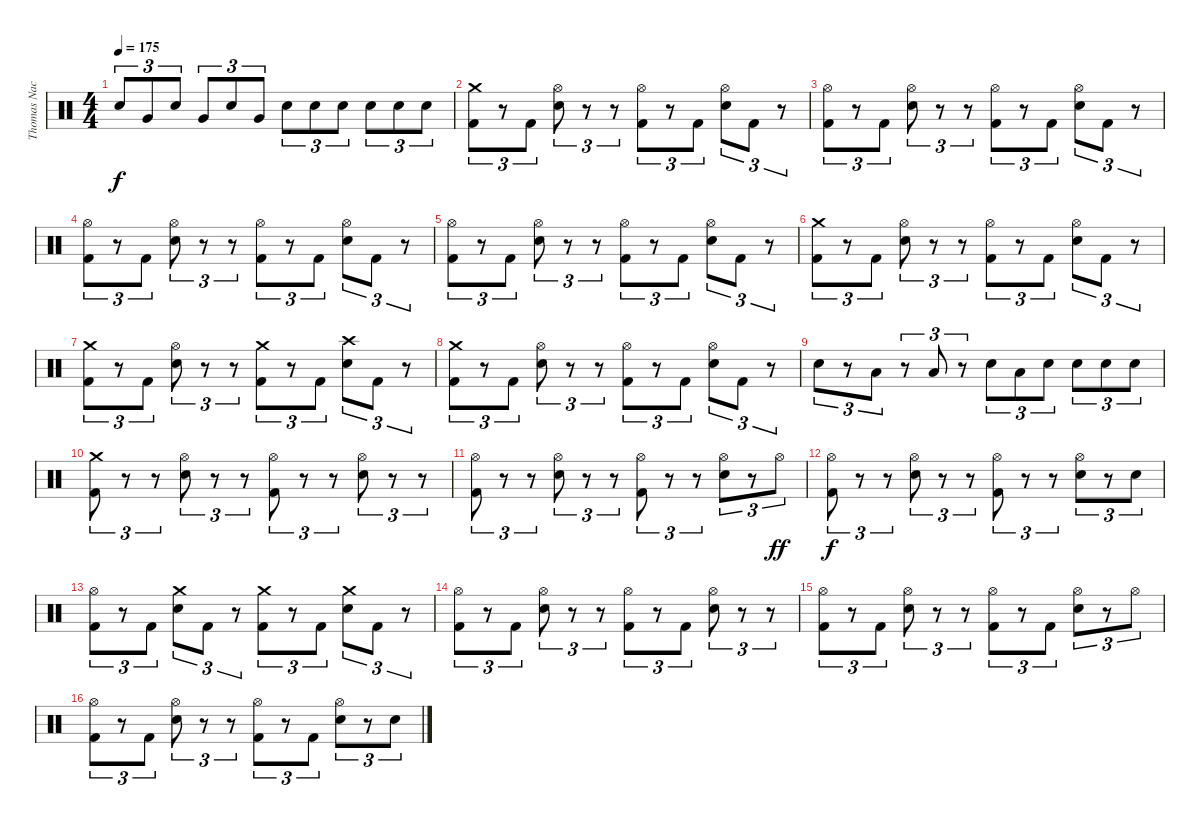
\track ("Thomas Nack" "Thomas Nac") {instrument percussion}
\staff {score}
\articulation defaults
\ts (4 4)
\tempo 175
\clef neutral
\ks c "Electric Snare (hit)".8{tu (3 2) dy f} "Very Low Tom (hit)".8{tu (3 2)} "Electric Snare (hit)".8{tu (3 2)} "Very Low Tom (hit)".8{tu (3 2)} "Electric Snare (hit)".8{tu (3 2)} "Very Low Tom (hit)".8{tu (3 2)} "Electric Snare (hit)".8{tu (3 2)} "Electric Snare (hit)".8{tu (3 2)} "Electric Snare (hit)".8{tu (3 2)} "Electric Snare (hit)".8{tu (3 2)} "Electric Snare (hit)".8{tu (3 2)} "Electric Snare (hit)".8{tu (3 2)}
|
("Crash medium (hit)" "Kick (hit) 2").8{tu (3 2)} r.8{tu (3 2)} "Kick (hit) 2".8{tu (3 2)} ("Hi-Hat (open)" "Electric Snare (hit)").8{tu (3 2)} r.8{tu (3 2)} r.8{tu (3 2)} ("Hi-Hat (open)" "Kick (hit) 2").8{tu (3 2)} r.8{tu (3 2)} "Kick (hit) 2".8{tu (3 2)} ("Hi-Hat (open)" "Electric Snare (hit)").8{tu (3 2)} "Kick (hit) 2".8{tu (3 2)} r.8{tu (3 2)} |
("Hi-Hat (open)" "Kick (hit) 2").8{tu (3 2)} r.8{tu (3 2)} "Kick (hit) 2".8{tu (3 2)} ("Hi-Hat (open)" "Electric Snare (hit)").8{tu (3 2)} r.8{tu (3 2)} r.8{tu (3 2)} ("Hi-Hat (open)" "Kick (hit) 2").8{tu (3 2)} r.8{tu (3 2)} "Kick (hit) 2".8{tu (3 2)} ("Hi-Hat (open)" "Electric Snare (hit)").8{tu (3 2)} "Kick (hit) 2".8{tu (3 2)} r.8{tu (3 2)} |
("Hi-Hat (open)" "Kick (hit) 2").8{tu (3 2)} r.8{tu (3 2)} "Kick (hit) 2".8{tu (3 2)} ("Hi-Hat (open)" "Electric Snare (hit)").8{tu (3 2)} r.8{tu (3 2)} r.8{tu (3 2)} ("Hi-Hat (open)" "Kick (hit) 2").8{tu (3 2)} r.8{tu (3 2)} "Kick (hit) 2".8{tu (3 2)} ("Hi-Hat (open)" "Electric Snare (hit)").8{tu (3 2)} "Kick (hit) 2".8{tu (3 2)} r.8{tu (3 2)} |
("Hi-Hat (open)" "Kick (hit) 2").8{tu (3 2)} r.8{tu (3 2)} "Kick (hit) 2".8{tu (3 2)} ("Hi-Hat (open)" "Electric Snare (hit)").8{tu (3 2)} r.8{tu (3 2)} r.8{tu (3 2)} ("Hi-Hat (open)" "Kick (hit) 2").8{tu (3 2)} r.8{tu (3 2)} "Kick (hit) 2".8{tu (3 2)} ("Hi-Hat (open)" "Electric Snare (hit)").8{tu (3 2)} "Kick (hit) 2".8{tu (3 2)} r.8{tu (3 2)} |
("Crash medium (hit)" "Kick (hit) 2").8{tu (3 2)} r.8{tu (3 2)} "Kick (hit) 2".8{tu (3 2)} ("Hi-Hat (open)" "Electric Snare (hit)").8{tu (3 2)} r.8{tu (3 2)} r.8{tu (3 2)} ("Hi-Hat (open)" "Kick (hit) 2").8{tu (3 2)} r.8{tu (3 2)} "Kick (hit) 2".8{tu (3 2)} ("Hi-Hat (open)" "Electric Snare (hit)").8{tu (3 2)} "Kick (hit) 2".8{tu (3 2)} r.8{tu (3 2)} |
("Crash medium (hit)" "Kick (hit) 2").8{tu (3 2)} r.8{tu (3 2)} "Kick (hit) 2".8{tu (3 2)} ("Hi-Hat (open)" "Electric Snare (hit)").8{tu (3 2)} r.8{tu (3 2)} r.8{tu (3 2)} ("Crash medium (hit)" "Kick (hit) 2").8{tu (3 2)} r.8{tu (3 2)} "Kick (hit) 2".8{tu (3 2)} ("Crash high (hit)" "Electric Snare (hit)").8{tu (3 2)} "Kick (hit) 2".8{tu (3 2)} r.8{tu (3 2)} |
("Crash medium (hit)" "Kick (hit) 2").8{tu (3 2)} r.8{tu (3 2)} "Kick (hit) 2".8{tu (3 2)} ("Hi-Hat (open)" "Electric Snare (hit)").8{tu (3 2)} r.8{tu (3 2)} r.8{tu (3 2)} ("Hi-Hat (open)" "Kick (hit) 2").8{tu (3 2)} r.8{tu (3 2)} "Kick (hit) 2".8{tu (3 2)} ("Hi-Hat (open)" "Electric Snare (hit)").8{tu (3 2)} "Kick (hit) 2".8{tu (3 2)} r.8{tu (3 2)} |
"Electric Snare (hit)".8{tu (3 2)} r.8{tu (3 2)} "Low Tom (hit)".8{tu (3 2)} r.8{tu (3 2)} "Low Tom (hit)".8{tu (3 2)} r.8{tu (3 2)} "Electric Snare (hit)".8{tu (3 2)} "Low Tom (hit)".8{tu (3 2)} "Electric Snare (hit)".8{tu (3 2)} "Electric Snare (hit)".8{tu (3 2)} "Electric Snare (hit)".8{tu (3 2)} "Electric Snare (hit)".8{tu (3 2)} |
("Crash medium (hit)" "Kick (hit) 2").8{tu (3 2)} r.8{tu (3 2)} r.8{tu (3 2)} ("Hi-Hat (open)" "Electric Snare (hit)").8{tu (3 2)} r.8{tu (3 2)} r.8{tu (3 2)} ("Hi-Hat (open)" "Kick (hit) 2").8{tu (3 2)} r.8{tu (3 2)} r.8{tu (3 2)} ("Hi-Hat (open)" "Electric Snare (hit)").8{tu (3 2)} r.8{tu (3 2)} r.8{tu (3 2)} |
("Hi-Hat (open)" "Kick (hit) 2").8{tu (3 2)} r.8{tu (3 2)} r.8{tu (3 2)} ("Hi-Hat (open)" "Electric Snare (hit)").8{tu (3 2)} r.8{tu (3 2)} r.8{tu (3 2)} ("Hi-Hat (open)" "Kick (hit) 2").8{tu (3 2)} r.8{tu (3 2)} r.8{tu (3 2)} ("Hi-Hat (open)" "Electric Snare (hit)").8{tu (3 2)} r.8{tu (3 2)} "Hi-Hat (open)".8{tu (3 2) dy ff} |
("Hi-Hat (open)" "Kick (hit) 2").8{tu (3 2) dy f} r.8{tu (3 2)} r.8{tu (3 2)} ("Hi-Hat (open)" "Electric Snare (hit)").8{tu (3 2)} r.8{tu (3 2)} r.8{tu (3 2)} ("Hi-Hat (open)" "Kick (hit) 2").8{tu (3 2)} r.8{tu (3 2)} r.8{tu (3 2)} ("Hi-Hat (open)" "Electric Snare (hit)").8{tu (3 2)} r.8{tu (3 2)} "Electric Snare (hit)".8{tu (3 2)} |
("Hi-Hat (open)" "Kick (hit) 2").8{tu (3 2)} r.8{tu (3 2)} "Kick (hit) 2".8{tu (3 2)} ("Crash medium (hit)" "Electric Snare (hit)").8{tu (3 2)} "Kick (hit) 2".8{tu (3 2)} r.8{tu (3 2)} ("Crash medium (hit)" "Kick (hit) 2").8{tu (3 2)} r.8{tu (3 2)} "Kick (hit) 2".8{tu (3 2)} ("Crash medium (hit)" "Electric Snare (hit)").8{tu (3 2)} "Kick (hit) 2".8{tu (3 2)} r.8{tu (3 2)} |
("Hi-Hat (open)" "Kick (hit) 2").8{tu (3 2)} r.8{tu (3 2)} "Kick (hit) 2".8{tu (3 2)} ("Hi-Hat (open)" "Electric Snare (hit)").8{tu (3 2)} r.8{tu (3 2)} r.8{tu (3 2)} ("Hi-Hat (open)" "Kick (hit) 2").8{tu (3 2)} r.8{tu (3 2)} "Kick (hit) 2".8{tu (3 2)} ("Hi-Hat (open)" "Electric Snare (hit)").8{tu (3 2)} r.8{tu (3 2)} r.8{tu (3 2)} |
("Hi-Hat (open)" "Kick (hit) 2").8{tu (3 2)} r.8{tu (3 2)} "Kick (hit) 2".8{tu (3 2)} ("Hi-Hat (open)" "Electric Snare (hit)").8{tu (3 2)} r.8{tu (3 2)} r.8{tu (3 2)} ("Hi-Hat (open)" "Kick (hit) 2").8{tu (3 2)} r.8{tu (3 2)} "Kick (hit) 2".8{tu (3 2)} ("Hi-Hat (open)" "Electric Snare (hit)").8{tu (3 2)} r.8{tu (3 2)} "Hi-Hat (open)".8{tu (3 2)} |
("Hi-Hat (open)" "Kick (hit) 2").8{tu (3 2)} r.8{tu (3 2)} "Kick (hit) 2".8{tu (3 2)} ("Hi-Hat (open)" "Electric Snare (hit)").8{tu (3 2)} r.8{tu (3 2)} r.8{tu (3 2)} ("Hi-Hat (open)" "Kick (hit) 2").8{tu (3 2)} r.8{tu (3 2)} "Kick (hit) 2".8{tu (3 2)} ("Hi-Hat (open)" "Electric Snare (hit)").8{tu (3 2)} r.8{tu (3 2)} "Electric Snare (hit)".8{tu (3 2)}
